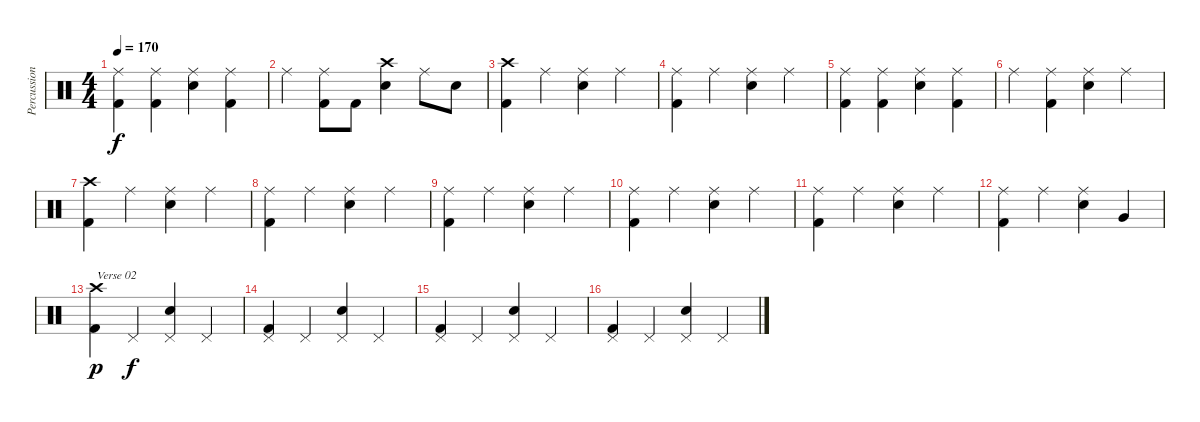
\track ("Percussion" "Percussion") {instrument percussion}
\staff {score}
\articulation defaults
\ts (4 4)
\tempo 170
\clef neutral
\ks c
("Ride (middle)" "Kick (hit) 2").4{dy f} ("Ride (middle)" "Kick (hit) 2").4 ("Ride (middle)" "Snare (hit) 2").4 ("Ride (middle)" "Kick (hit) 2").4 |
"Ride (middle)".4 ("Ride (middle)" "Kick (hit) 2").8 "Kick (hit) 2".8 ("Crash high (hit)" "Snare (hit) 2").4 "Ride (middle)".8 "Snare (hit) 2".8 |
("Crash high (hit)" "Kick (hit) 2").4 "Ride (middle)".4 ("Ride (middle)" "Snare (hit) 2").4 "Ride (middle)".4 |
("Ride (middle)" "Kick (hit) 2").4 "Ride (middle)".4 ("Ride (middle)" "Snare (hit) 2").4 "Ride (middle)".4 |
("Ride (middle)" "Kick (hit) 2").4 ("Ride (middle)" "Kick (hit) 2").4 ("Ride (middle)" "Snare (hit) 2").4 ("Ride (middle)" "Kick (hit) 2").4 |
"Ride (middle)".4 ("Ride (middle)" "Kick (hit) 2").4 ("Ride (middle)" "Snare (hit) 2").4 "Ride (middle)".4 |
("Crash high (hit)" "Kick (hit) 2").4 "Ride (middle)".4 ("Ride (middle)" "Snare (hit) 2").4 "Ride (middle)".4 |
("Ride (middle)" "Kick (hit) 2").4 "Ride (middle)".4 ("Ride (middle)" "Snare (hit) 2").4 "Ride (middle)".4 |
("Ride (middle)" "Kick (hit) 2").4 "Ride (middle)".4 ("Ride (middle)" "Snare (hit) 2").4 "Ride (middle)".4 |
("Ride (middle)" "Kick (hit) 2").4 "Ride (middle)".4 ("Ride (middle)" "Snare (hit) 2").4 "Ride (middle)".4 |
("Ride (middle)" "Kick (hit) 2").4 "Ride (middle)".4 ("Ride (middle)" "Snare (hit) 2").4 "Ride (middle)".4 |
("Ride (middle)" "Kick (hit) 2").4 "Ride (middle)".4 ("Ride (middle)" "Snare (hit) 2").4 "Very Low Tom (hit)".4 |
("Crash high (hit)" "Kick (hit) 2").4{txt "Verse 02" dy p} "Pedal Hi-Hat (hit)".4{dy f} ("Pedal Hi-Hat (hit)" "Snare (hit) 2").4 "Pedal Hi-Hat (hit)".4 |
("Pedal Hi-Hat (hit)" "Kick (hit) 2").4 "Pedal Hi-Hat (hit)".4 ("Pedal Hi-Hat (hit)" "Snare (hit) 2").4 "Pedal Hi-Hat (hit)".4 |
("Pedal Hi-Hat (hit)" "Kick (hit) 2").4 "Pedal Hi-Hat (hit)".4 ("Pedal Hi-Hat (hit)" "Snare (hit) 2").4 "Pedal Hi-Hat (hit)".4 |
("Pedal Hi-Hat (hit)" "Kick (hit) 2").4 "Pedal Hi-Hat (hit)".4 ("Pedal Hi-Hat (hit)" "Snare (hit) 2").4 "Pedal Hi-Hat (hit)".4
